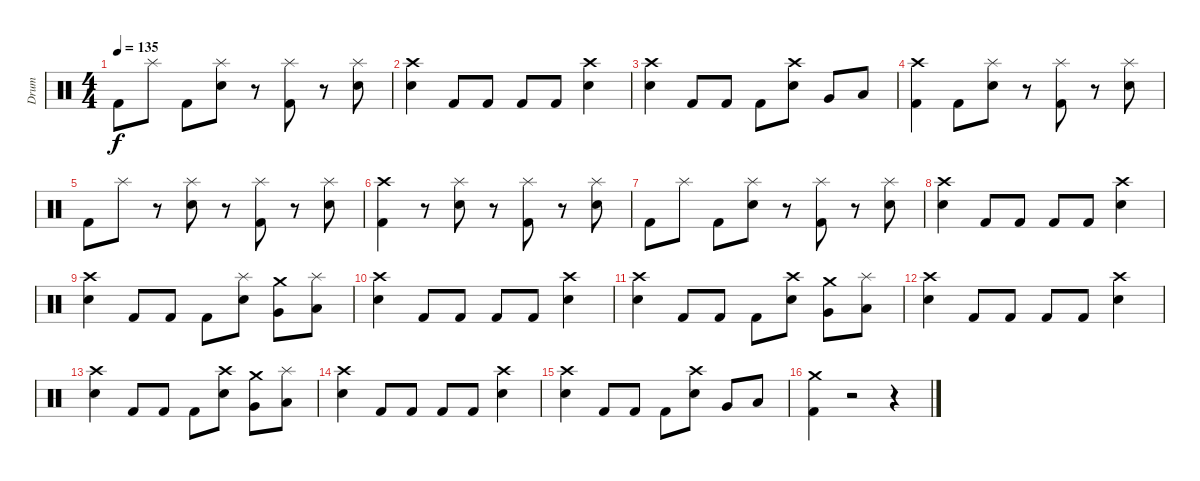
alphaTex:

\track ("Drum" "Drum") {instrument percussion}
\staff {score}
\articulation defaults
\ts (4 4)
\tempo 135
\clef neutral
\ks c "Kick (hit) 2".8{dy f} "Splash (hit)".8 "Kick (hit) 2".8
("Splash (hit)" "Electric Snare (hit)").8 r.8 ("Splash (hit)" "Kick (hit) 2").8 r.8 ("Splash (hit)" "Electric Snare (hit)").8 |
("Crash high (hit)" "Electric Snare (hit)").4 "Kick (hit) 2".8 "Kick (hit) 2".8 "Kick (hit) 2".8 "Kick (hit) 2".8 ("Crash high (hit)" "Electric Snare (hit)").4 |
("Crash high (hit)" "Electric Snare (hit)").4 "Kick (hit) 2".8 "Kick (hit) 2".8 "Kick (hit) 2".8 ("Crash high (hit)" "Electric Snare (hit)").8 "Very Low Tom (hit)".8 "Low Floor Tom (hit)".8 |
("Crash high (hit)" "Kick (hit) 2").4 "Kick (hit) 2".8 ("Splash (hit)" "Electric Snare (hit)").8 r.8 ("Splash (hit)" "Kick (hit) 2").8 r.8 ("Splash (hit)" "Electric Snare (hit)").8 |
"Kick (hit) 2".8 "Splash (hit)".8 r.8 ("Splash (hit)" "Electric Snare (hit)").8 r.8 ("Splash (hit)" "Kick (hit) 2").8 r.8 ("Splash (hit)" "Electric Snare (hit)").8 |
("Crash high (hit)" "Kick (hit) 2").4 r.8 ("Splash (hit)" "Electric Snare (hit)").8 r.8 ("Splash (hit)" "Kick (hit) 2").8 r.8 ("Splash (hit)" "Electric Snare (hit)").8 |
"Kick (hit) 2".8 "Splash (hit)".8 "Kick (hit) 2".8 ("Splash (hit)" "Electric Snare (hit)").8 r.8 ("Splash (hit)" "Kick (hit) 2").8 r.8 ("Splash (hit)" "Electric Snare (hit)").8 |
("Crash high (hit)" "Electric Snare (hit)").4 "Kick (hit) 2".8 "Kick (hit) 2".8 "Kick (hit) 2".8 "Kick (hit) 2".8 ("Crash high (hit)" "Electric Snare (hit)").4 |
("Crash high (hit)" "Electric Snare (hit)").4 "Kick (hit) 2".8 "Kick (hit) 2".8 "Kick (hit) 2".8 ("Splash (hit)" "Electric Snare (hit)").8 ("Crash medium (hit)" "Very Low Tom (hit)").8 ("Splash (hit)" "Low Floor Tom (hit)").8 |
("Crash high (hit)" "Electric Snare (hit)").4 "Kick (hit) 2".8 "Kick (hit) 2".8 "Kick (hit) 2".8 "Kick (hit) 2".8 ("Crash high (hit)" "Electric Snare (hit)").4 |
("Crash high (hit)" "Electric Snare (hit)").4 "Kick (hit) 2".8 "Kick (hit) 2".8 "Kick (hit) 2".8 ("Crash high (hit)" "Electric Snare (hit)").8 ("Very Low Tom (hit)" "Crash medium (hit)").8 ("Low Floor Tom (hit)" "Splash (hit)").8 |
("Crash high (hit)" "Electric Snare (hit)").4 "Kick (hit) 2".8 "Kick (hit) 2".8 "Kick (hit) 2".8 "Kick (hit) 2".8 ("Crash high (hit)" "Electric Snare (hit)").4 |
("Crash high (hit)" "Electric Snare (hit)").4 "Kick (hit) 2".8 "Kick (hit) 2".8 "Kick (hit) 2".8 ("Crash high (hit)" "Electric Snare (hit)").8 ("Crash medium (hit)" "Very Low Tom (hit)").8 ("Splash (hit)" "Low Floor Tom (hit)").8 |
("Crash high (hit)" "Electric Snare (hit)").4 "Kick (hit) 2".8 "Kick (hit) 2".8 "Kick (hit) 2".8 "Kick (hit) 2".8 ("Crash high (hit)" "Electric Snare (hit)").4 |
("Crash high (hit)" "Electric Snare (hit)").4 "Kick (hit) 2".8 "Kick (hit) 2".8 "Kick (hit) 2".8 ("Crash high (hit)" "Electric Snare (hit)").8 "Very Low Tom (hit)".8 "Low Floor Tom (hit)".8 |
("Crash medium (hit)" "Kick (hit) 2").4 r.2 r.4
